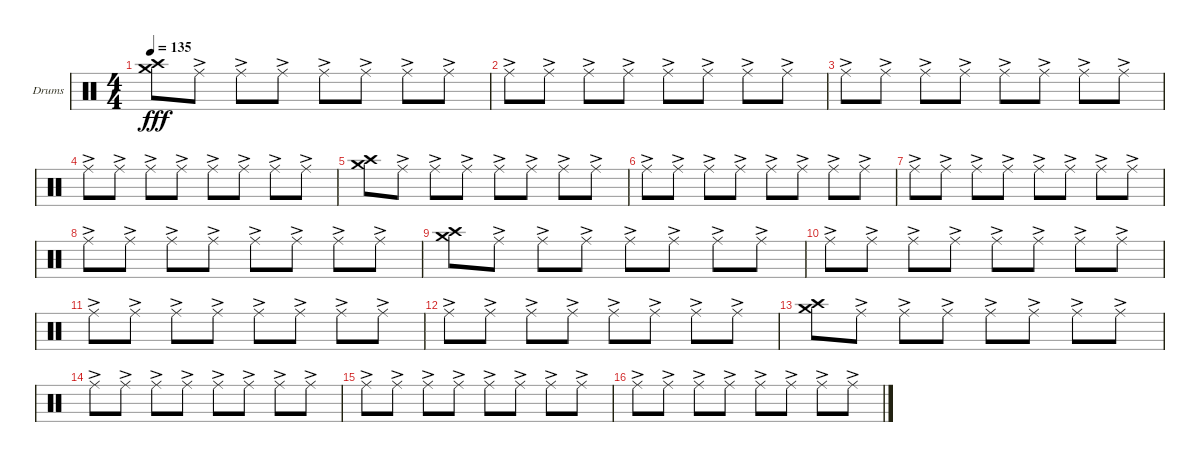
\defaultSystemsLayout 4
\bracketExtendMode groupsimilarinstruments
\firstSystemTrackNameOrientation horizontal
\otherSystemsTrackNameOrientation horizontal
\track ("Helders" "Drums") {instrument percussion}
\staff {score}
\articulation defaults
\ts (4 4)
\tempo 135
\clef neutral
\ks c
("Crash high (hit)" "Crash medium (hit)").8{dy fff} "Ride (middle)"{ac}.8 "Ride (middle)"{ac}.8 "Ride (middle)"{ac}.8 "Ride (middle)"{ac}.8 "Ride (middle)"{ac}.8 "Ride (middle)"{ac}.8 "Ride (middle)"{ac}.8 |
"Ride (middle)"{ac}.8 "Ride (middle)"{ac}.8 "Ride (middle)"{ac}.8 "Ride (middle)"{ac}.8 "Ride (middle)"{ac}.8 "Ride (middle)"{ac}.8 "Ride (middle)"{ac}.8 "Ride (middle)"{ac}.8 |
"Ride (middle)"{ac}.8 "Ride (middle)"{ac}.8 "Ride (middle)"{ac}.8 "Ride (middle)"{ac}.8 "Ride (middle)"{ac}.8 "Ride (middle)"{ac}.8 "Ride (middle)"{ac}.8 "Ride (middle)"{ac}.8 |
"Ride (middle)"{ac}.8 "Ride (middle)"{ac}.8 "Ride (middle)"{ac}.8 "Ride (middle)"{ac}.8 "Ride (middle)"{ac}.8 "Ride (middle)"{ac}.8 "Ride (middle)"{ac}.8 "Ride (middle)"{ac}.8 |
("Crash high (hit)" "Crash medium (hit)").8 "Ride (middle)"{ac}.8 "Ride (middle)"{ac}.8 "Ride (middle)"{ac}.8 "Ride (middle)"{ac}.8 "Ride (middle)"{ac}.8 "Ride (middle)"{ac}.8 "Ride (middle)"{ac}.8 |
"Ride (middle)"{ac}.8 "Ride (middle)"{ac}.8 "Ride (middle)"{ac}.8 "Ride (middle)"{ac}.8 "Ride (middle)"{ac}.8 "Ride (middle)"{ac}.8 "Ride (middle)"{ac}.8 "Ride (middle)"{ac}.8 |
"Ride (middle)"{ac}.8 "Ride (middle)"{ac}.8 "Ride (middle)"{ac}.8 "Ride (middle)"{ac}.8 "Ride (middle)"{ac}.8 "Ride (middle)"{ac}.8 "Ride (middle)"{ac}.8 "Ride (middle)"{ac}.8 |
"Ride (middle)"{ac}.8 "Ride (middle)"{ac}.8 "Ride (middle)"{ac}.8 "Ride (middle)"{ac}.8 "Ride (middle)"{ac}.8 "Ride (middle)"{ac}.8 "Ride (middle)"{ac}.8 "Ride (middle)"{ac}.8 |
("Crash high (hit)" "Crash medium (hit)").8 "Ride (middle)"{ac}.8 "Ride (middle)"{ac}.8 "Ride (middle)"{ac}.8 "Ride (middle)"{ac}.8 "Ride (middle)"{ac}.8 "Ride (middle)"{ac}.8 "Ride (middle)"{ac}.8 |
"Ride (middle)"{ac}.8 "Ride (middle)"{ac}.8 "Ride (middle)"{ac}.8 "Ride (middle)"{ac}.8 "Ride (middle)"{ac}.8 "Ride (middle)"{ac}.8 "Ride (middle)"{ac}.8 "Ride (middle)"{ac}.8 |
"Ride (middle)"{ac}.8 "Ride (middle)"{ac}.8 "Ride (middle)"{ac}.8 "Ride (middle)"{ac}.8 "Ride (middle)"{ac}.8 "Ride (middle)"{ac}.8 "Ride (middle)"{ac}.8 "Ride (middle)"{ac}.8 |
"Ride (middle)"{ac}.8 "Ride (middle)"{ac}.8 "Ride (middle)"{ac}.8 "Ride (middle)"{ac}.8 "Ride (middle)"{ac}.8 "Ride (middle)"{ac}.8 "Ride (middle)"{ac}.8 "Ride (middle)"{ac}.8 |
("Crash high (hit)" "Crash medium (hit)").8 "Ride (middle)"{ac}.8 "Ride (middle)"{ac}.8 "Ride (middle)"{ac}.8 "Ride (middle)"{ac}.8 "Ride (middle)"{ac}.8 "Ride (middle)"{ac}.8 "Ride (middle)"{ac}.8 |
"Ride (middle)"{ac}.8 "Ride (middle)"{ac}.8 "Ride (middle)"{ac}.8 "Ride (middle)"{ac}.8 "Ride (middle)"{ac}.8 "Ride (middle)"{ac}.8 "Ride (middle)"{ac}.8 "Ride (middle)"{ac}.8 |
"Ride (middle)"{ac}.8 "Ride (middle)"{ac}.8 "Ride (middle)"{ac}.8 "Ride (middle)"{ac}.8 "Ride (middle)"{ac}.8 "Ride (middle)"{ac}.8 "Ride (middle)"{ac}.8 "Ride (middle)"{ac}.8 |
"Ride (middle)"{ac}.8 "Ride (middle)"{ac}.8 "Ride (middle)"{ac}.8 "Ride (middle)"{ac}.8 "Ride (middle)"{ac}.8 "Ride (middle)"{ac}.8 "Ride (middle)"{ac}.8 "Ride (middle)"{ac}.8
